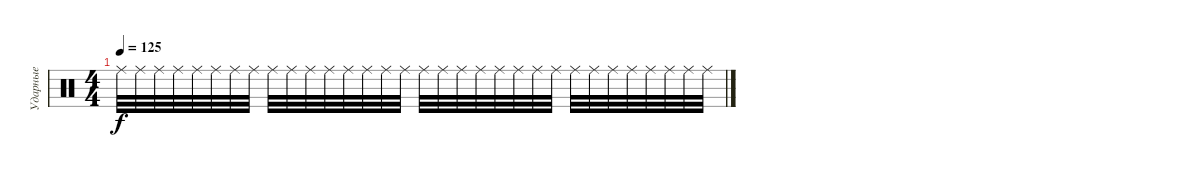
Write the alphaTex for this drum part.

\track ("Ударные" "Ударные") {instrument percussion}
\staff {score}
\articulation defaults
\ts (4 4)
\tempo 125
\clef neutral
\ks c "Ride (middle)".32{dy f volume 0} "Ride (middle)".32{volume 12} "Ride (middle)".32 "Ride (middle)".32 "Ride (middle)".32 "Ride (middle)".32 "Ride (middle)".32 "Ride (middle)".32 "Ride (middle)".32 "Ride (middle)".32 "Ride (middle)".32 "Ride (middle)".32 "Ride (middle)".32 "Ride (middle)".32 "Ride (middle)".32 "Ride (middle)".32 "Ride (middle)".32 "Ride (middle)".32 "Ride (middle)".32 "Ride (middle)".32 "Ride (middle)".32 "Ride (middle)".32 "Ride (middle)".32 "Ride (middle)".32 "Ride (middle)".32 "Ride (middle)".32 "Ride (middle)".32 "Ride (middle)".32 "Ride (middle)".32 "Ride (middle)".32 "Ride (middle)".32 "Ride (middle)".32
